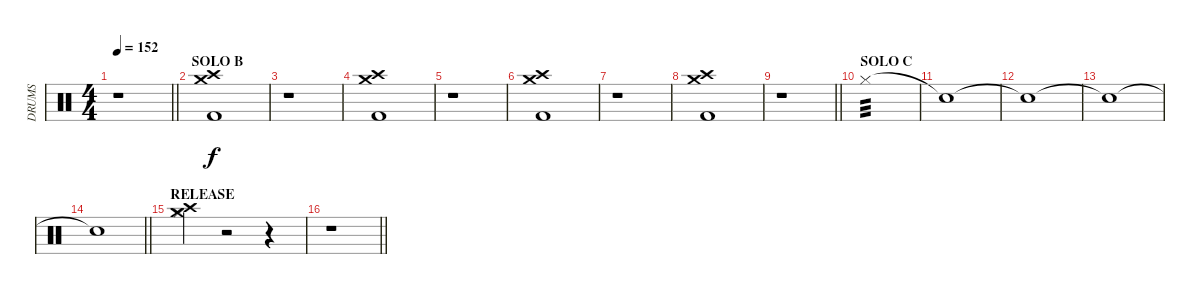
\track ("DRUMS" "DRUMS") {instrument percussion}
\staff {score}
\articulation defaults
\ts (4 4)
\tempo 152
\clef neutral
\barLineRight lightlight
\ks c
r.1{dy f} |
\section ("" "SOLO B")
("Kick (hit) 2" "Crash high (hit)" "Crash medium (hit)").1 |
r.1 |
("Kick (hit) 2" "Crash high (hit)" "Crash medium (hit)").1 |
r.1 |
("Kick (hit) 2" "Crash high (hit)" "Crash medium (hit)").1 |
r.1 |
("Kick (hit) 2" "Crash high (hit)" "Crash medium (hit)").1 |
\barLineRight lightlight
r.1 |
\section ("" "SOLO C")
"Hi-Hat (closed)".1{tp 3 volume 5} |
"Snare (hit)"{t}.1 |
"Snare (hit)"{t}.1 |
"Snare (hit)"{t}.1 |
\barLineRight lightlight "Snare (hit)"{t}.1
|
\section ("" "RELEASE")
("Crash medium (hit)" "Hi-Hat (closed)" "Crash high (hit)").4{volume 7} r.2 r.4 |
\barLineRight lightlight
r.1
